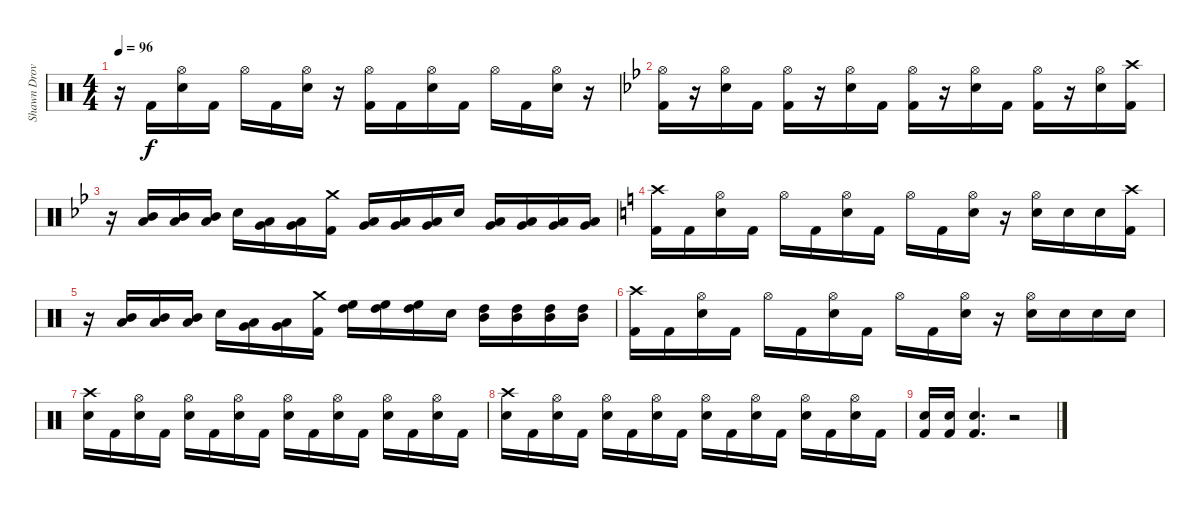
\track ("Shawn Drover" "Shawn Drov") {instrument percussion}
\staff {score}
\articulation defaults
\ts (4 4)
\tempo 96
\clef neutral
\ks c
r.16{dy f} "Kick (hit) 2".16 ("Hi-Hat (open)" "Snare (hit) 2").16 "Kick (hit) 2".16 "Hi-Hat (open)".16 "Kick (hit) 2".16 ("Hi-Hat (open)" "Snare (hit) 2").16 r.16 ("Hi-Hat (open)" "Kick (hit) 2").16 "Kick (hit) 2".16 ("Hi-Hat (open)" "Snare (hit) 2").16 "Kick (hit) 2".16 "Hi-Hat (open)".16 "Kick (hit) 2".16 ("Hi-Hat (open)" "Snare (hit) 2").16 r.16 |
\ks bb
("Hi-Hat (open)" "Kick (hit) 2").16 r.16 ("Hi-Hat (open)" "Snare (hit) 2").16 "Kick (hit) 2".16 ("Hi-Hat (open)" "Kick (hit) 2").16 r.16 ("Hi-Hat (open)" "Snare (hit) 2").16 "Kick (hit) 2".16 ("Hi-Hat (open)" "Kick (hit) 2").16 r.16 ("Hi-Hat (open)" "Snare (hit) 2").16 "Kick (hit) 2".16 ("Hi-Hat (open)" "Kick (hit) 2").16 r.16 ("Hi-Hat (open)" "Snare (hit) 2").16 ("Crash high (hit)" "Kick (hit) 2").16 |
r.16 ("Mid Tom (hit)" "Low Tom (hit)").16 ("Mid Tom (hit)" "Low Tom (hit)").16 ("Mid Tom (hit)" "Low Tom (hit)").16 "Snare (hit) 2".16 ("Low Tom (hit)" "Very Low Tom (hit)").16 ("Low Tom (hit)" "Very Low Tom (hit)").16 ("Crash medium (hit)" "Kick (hit) 2").16 ("Low Tom (hit)" "Very Low Tom (hit)").16 ("Low Tom (hit)" "Very Low Tom (hit)").16 ("Low Tom (hit)" "Very Low Tom (hit)").16 "Snare (hit) 2".16 ("Very Low Tom (hit)" "Low Floor Tom (hit)").16 ("Very Low Tom (hit)" "Low Floor Tom (hit)").16 ("Very Low Tom (hit)" "Low Floor Tom (hit)").16 ("Very Low Tom (hit)" "Low Floor Tom (hit)").16 |
\ks c
("Crash high (hit)" "Kick (hit) 2").16 "Kick (hit) 2".16 ("Hi-Hat (open)" "Snare (hit) 2").16 "Kick (hit) 2".16 "Hi-Hat (open)".16 "Kick (hit) 2".16 ("Hi-Hat (open)" "Snare (hit) 2").16 "Kick (hit) 2".16 "Hi-Hat (open)".16 "Kick (hit) 2".16 ("Hi-Hat (open)" "Snare (hit) 2").16 r.16 ("Hi-Hat (open)" "Snare (hit) 2").16 "Snare (hit) 2".16 "Snare (hit) 2".16 ("Crash high (hit)" "Kick (hit) 2").16 |
r.16 ("Mid Tom (hit)" "Low Tom (hit)").16 ("Mid Tom (hit)" "Low Tom (hit)").16 ("Mid Tom (hit)" "Low Tom (hit)").16 "Snare (hit) 2".16 ("Low Tom (hit)" "Very Low Tom (hit)").16 ("Low Tom (hit)" "Very Low Tom (hit)").16 ("Crash medium (hit)" "Kick (hit) 2").16 ("High Tom (hit)" "High Floor Tom (hit)").16 ("High Tom (hit)" "High Floor Tom (hit)").16 ("High Tom (hit)" "High Floor Tom (hit)").16 "Snare (hit) 2".16 ("High Tom (hit)" "Mid Tom (hit)").16 ("High Tom (hit)" "Mid Tom (hit)").16 ("High Tom (hit)" "Mid Tom (hit)").16 ("High Tom (hit)" "Mid Tom (hit)").16 |
("Crash high (hit)" "Kick (hit) 2").16 "Kick (hit) 2".16 ("Hi-Hat (open)" "Snare (hit) 2").16 "Kick (hit) 2".16 "Hi-Hat (open)".16 "Kick (hit) 2".16 ("Hi-Hat (open)" "Snare (hit) 2").16 "Kick (hit) 2".16 "Hi-Hat (open)".16 "Kick (hit) 2".16 ("Hi-Hat (open)" "Snare (hit) 2").16 r.16 ("Hi-Hat (open)" "Snare (hit) 2").16 "Snare (hit) 2".16 "Snare (hit) 2".16 "Snare (hit) 2".16 |
("Crash high (hit)" "Snare (hit) 2").16 "Kick (hit) 2".16 ("Hi-Hat (open)" "Snare (hit) 2").16 "Kick (hit) 2".16 ("Hi-Hat (open)" "Snare (hit) 2").16 "Kick (hit) 2".16 ("Hi-Hat (open)" "Snare (hit) 2").16 "Kick (hit) 2".16 ("Hi-Hat (open)" "Snare (hit) 2").16 "Kick (hit) 2".16 ("Hi-Hat (open)" "Snare (hit) 2").16 "Kick (hit) 2".16 ("Hi-Hat (open)" "Snare (hit) 2").16 "Kick (hit) 2".16 ("Hi-Hat (open)" "Snare (hit) 2").16 "Kick (hit) 2".16 |
("Crash high (hit)" "Snare (hit) 2").16 "Kick (hit) 2".16 ("Hi-Hat (open)" "Snare (hit) 2").16 "Kick (hit) 2".16 ("Hi-Hat (open)" "Snare (hit) 2").16 "Kick (hit) 2".16 ("Hi-Hat (open)" "Snare (hit) 2").16 "Kick (hit) 2".16 ("Hi-Hat (open)" "Snare (hit) 2").16 "Kick (hit) 2".16 ("Hi-Hat (open)" "Snare (hit) 2").16 "Kick (hit) 2".16 ("Hi-Hat (open)" "Snare (hit) 2").16 "Kick (hit) 2".16 ("Hi-Hat (open)" "Snare (hit) 2").16 "Kick (hit) 2".16 |
("Kick (hit) 2" "Snare (hit) 2").16 ("Kick (hit) 2" "Snare (hit) 2").16 ("Kick (hit) 2" "Snare (hit) 2").4{d} r.2
